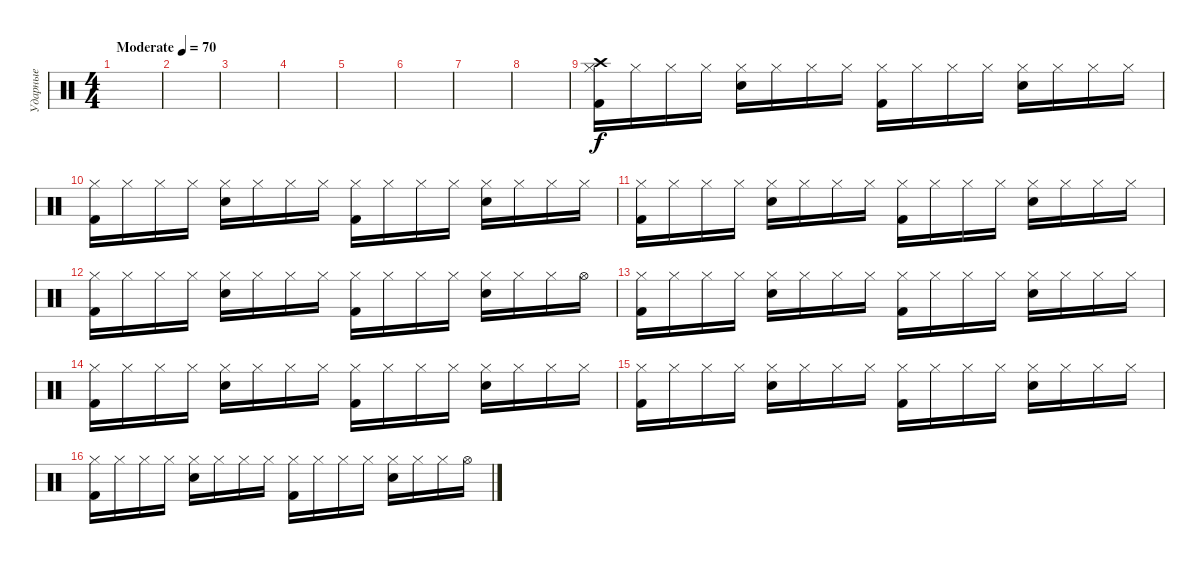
\track ("Ударные" "Ударные") {instrument percussion}
\staff {score}
\articulation defaults
\ts (4 4)
\tempo (70 "Moderate")
\clef neutral
\ks c
|
|
|
|
|
|
|
|
("Hi-Hat (closed)" "Kick (hit) 2" "Crash high (hit)").16 "Hi-Hat (closed)".16 "Hi-Hat (closed)".16 "Hi-Hat (closed)".16 ("Hi-Hat (closed)" "Electric Snare (hit)").16 "Hi-Hat (closed)".16 "Hi-Hat (closed)".16 "Hi-Hat (closed)".16 ("Hi-Hat (closed)" "Kick (hit) 2").16 "Hi-Hat (closed)".16 "Hi-Hat (closed)".16 "Hi-Hat (closed)".16 ("Hi-Hat (closed)" "Electric Snare (hit)").16 "Hi-Hat (closed)".16 "Hi-Hat (closed)".16 "Hi-Hat (closed)".16 |
("Hi-Hat (closed)" "Kick (hit) 2").16 "Hi-Hat (closed)".16 "Hi-Hat (closed)".16 "Hi-Hat (closed)".16 ("Hi-Hat (closed)" "Electric Snare (hit)").16 "Hi-Hat (closed)".16 "Hi-Hat (closed)".16 "Hi-Hat (closed)".16 ("Hi-Hat (closed)" "Kick (hit) 2").16 "Hi-Hat (closed)".16 "Hi-Hat (closed)".16 "Hi-Hat (closed)".16 ("Hi-Hat (closed)" "Electric Snare (hit)").16 "Hi-Hat (closed)".16 "Hi-Hat (closed)".16 "Hi-Hat (closed)".16 |
("Hi-Hat (closed)" "Kick (hit) 2").16 "Hi-Hat (closed)".16 "Hi-Hat (closed)".16 "Hi-Hat (closed)".16 ("Hi-Hat (closed)" "Electric Snare (hit)").16 "Hi-Hat (closed)".16 "Hi-Hat (closed)".16 "Hi-Hat (closed)".16 ("Hi-Hat (closed)" "Kick (hit) 2").16 "Hi-Hat (closed)".16 "Hi-Hat (closed)".16 "Hi-Hat (closed)".16 ("Hi-Hat (closed)" "Electric Snare (hit)").16 "Hi-Hat (closed)".16 "Hi-Hat (closed)".16 "Hi-Hat (closed)".16 |
("Hi-Hat (closed)" "Kick (hit) 2").16 "Hi-Hat (closed)".16 "Hi-Hat (closed)".16 "Hi-Hat (closed)".16 ("Hi-Hat (closed)" "Electric Snare (hit)").16 "Hi-Hat (closed)".16 "Hi-Hat (closed)".16 "Hi-Hat (closed)".16 ("Hi-Hat (closed)" "Kick (hit) 2").16 "Hi-Hat (closed)".16 "Hi-Hat (closed)".16 "Hi-Hat (closed)".16 ("Hi-Hat (closed)" "Electric Snare (hit)").16 "Hi-Hat (closed)".16 "Hi-Hat (closed)".16 "Hi-Hat (open)".16 |
("Hi-Hat (closed)" "Kick (hit) 2").16 "Hi-Hat (closed)".16 "Hi-Hat (closed)".16 "Hi-Hat (closed)".16 ("Hi-Hat (closed)" "Electric Snare (hit)").16 "Hi-Hat (closed)".16 "Hi-Hat (closed)".16 "Hi-Hat (closed)".16 ("Hi-Hat (closed)" "Kick (hit) 2").16 "Hi-Hat (closed)".16 "Hi-Hat (closed)".16 "Hi-Hat (closed)".16 ("Hi-Hat (closed)" "Electric Snare (hit)").16 "Hi-Hat (closed)".16 "Hi-Hat (closed)".16 "Hi-Hat (closed)".16 |
("Hi-Hat (closed)" "Kick (hit) 2").16 "Hi-Hat (closed)".16 "Hi-Hat (closed)".16 "Hi-Hat (closed)".16 ("Hi-Hat (closed)" "Electric Snare (hit)").16 "Hi-Hat (closed)".16 "Hi-Hat (closed)".16 "Hi-Hat (closed)".16 ("Hi-Hat (closed)" "Kick (hit) 2").16 "Hi-Hat (closed)".16 "Hi-Hat (closed)".16 "Hi-Hat (closed)".16 ("Hi-Hat (closed)" "Electric Snare (hit)").16 "Hi-Hat (closed)".16 "Hi-Hat (closed)".16 "Hi-Hat (closed)".16 |
("Hi-Hat (closed)" "Kick (hit) 2").16 "Hi-Hat (closed)".16 "Hi-Hat (closed)".16 "Hi-Hat (closed)".16 ("Hi-Hat (closed)" "Electric Snare (hit)").16 "Hi-Hat (closed)".16 "Hi-Hat (closed)".16 "Hi-Hat (closed)".16 ("Hi-Hat (closed)" "Kick (hit) 2").16 "Hi-Hat (closed)".16 "Hi-Hat (closed)".16 "Hi-Hat (closed)".16 ("Hi-Hat (closed)" "Electric Snare (hit)").16 "Hi-Hat (closed)".16 "Hi-Hat (closed)".16 "Hi-Hat (closed)".16 |
("Hi-Hat (closed)" "Kick (hit) 2").16 "Hi-Hat (closed)".16 "Hi-Hat (closed)".16 "Hi-Hat (closed)".16 ("Hi-Hat (closed)" "Electric Snare (hit)").16 "Hi-Hat (closed)".16 "Hi-Hat (closed)".16 "Hi-Hat (closed)".16 ("Hi-Hat (closed)" "Kick (hit) 2").16 "Hi-Hat (closed)".16 "Hi-Hat (closed)".16 "Hi-Hat (closed)".16 ("Hi-Hat (closed)" "Electric Snare (hit)").16 "Hi-Hat (closed)".16 "Hi-Hat (closed)".16 "Hi-Hat (open)".16
